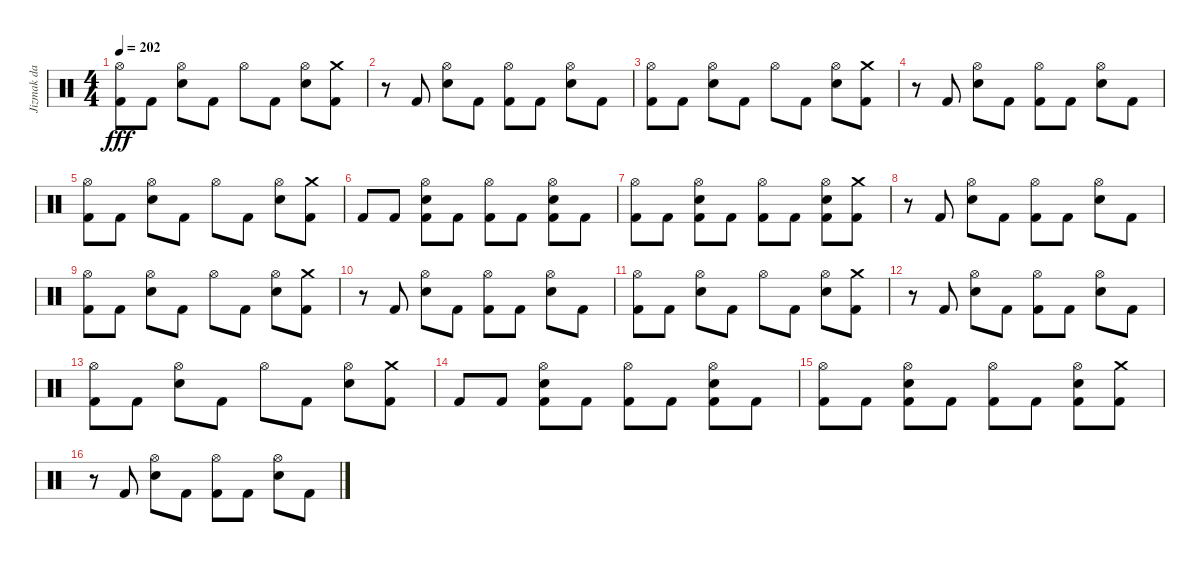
\track ("Jizmak da Gusha" "Jizmak da ") {instrument percussion}
\staff {score}
\articulation defaults
\ts (4 4)
\tempo 202
\clef neutral
\ks c
("Hi-Hat (open)" "Kick (hit) 2").8{dy fff} "Kick (hit) 2".8 ("Hi-Hat (open)" "Electric Snare (hit)").8 "Kick (hit) 2".8 "Hi-Hat (open)".8 "Kick (hit) 2".8 ("Hi-Hat (open)" "Electric Snare (hit)").8 ("Crash medium (hit)" "Kick (hit) 2").8 |
r.8 "Kick (hit) 2".8 ("Hi-Hat (open)" "Electric Snare (hit)").8 "Kick (hit) 2".8 ("Hi-Hat (open)" "Kick (hit) 2").8 "Kick (hit) 2".8 ("Hi-Hat (open)" "Electric Snare (hit)").8 "Kick (hit) 2".8 |
("Hi-Hat (open)" "Kick (hit) 2").8 "Kick (hit) 2".8 ("Hi-Hat (open)" "Electric Snare (hit)").8 "Kick (hit) 2".8 "Hi-Hat (open)".8 "Kick (hit) 2".8 ("Hi-Hat (open)" "Electric Snare (hit)").8 ("Crash medium (hit)" "Kick (hit) 2").8 |
r.8 "Kick (hit) 2".8 ("Hi-Hat (open)" "Electric Snare (hit)").8 "Kick (hit) 2".8 ("Hi-Hat (open)" "Kick (hit) 2").8 "Kick (hit) 2".8 ("Hi-Hat (open)" "Electric Snare (hit)").8 "Kick (hit) 2".8 |
("Hi-Hat (open)" "Kick (hit) 2").8 "Kick (hit) 2".8 ("Hi-Hat (open)" "Electric Snare (hit)").8 "Kick (hit) 2".8 "Hi-Hat (open)".8 "Kick (hit) 2".8 ("Hi-Hat (open)" "Electric Snare (hit)").8 ("Crash medium (hit)" "Kick (hit) 2").8 |
"Kick (hit) 2".8 "Kick (hit) 2".8 ("Hi-Hat (open)" "Electric Snare (hit)" "Kick (hit) 2").8 "Kick (hit) 2".8 ("Hi-Hat (open)" "Kick (hit) 2").8 "Kick (hit) 2".8 ("Hi-Hat (open)" "Electric Snare (hit)" "Kick (hit) 2").8 "Kick (hit) 2".8 |
("Hi-Hat (open)" "Kick (hit) 2").8 "Kick (hit) 2".8 ("Hi-Hat (open)" "Electric Snare (hit)" "Kick (hit) 2").8 "Kick (hit) 2".8 ("Hi-Hat (open)" "Kick (hit) 2").8 "Kick (hit) 2".8 ("Hi-Hat (open)" "Electric Snare (hit)" "Kick (hit) 2").8 ("Crash medium (hit)" "Kick (hit) 2").8 |
r.8 "Kick (hit) 2".8 ("Hi-Hat (open)" "Electric Snare (hit)").8 "Kick (hit) 2".8 ("Hi-Hat (open)" "Kick (hit) 2").8 "Kick (hit) 2".8 ("Hi-Hat (open)" "Electric Snare (hit)").8 "Kick (hit) 2".8 |
("Hi-Hat (open)" "Kick (hit) 2").8 "Kick (hit) 2".8 ("Hi-Hat (open)" "Electric Snare (hit)").8 "Kick (hit) 2".8 "Hi-Hat (open)".8 "Kick (hit) 2".8 ("Hi-Hat (open)" "Electric Snare (hit)").8 ("Crash medium (hit)" "Kick (hit) 2").8 |
r.8 "Kick (hit) 2".8 ("Hi-Hat (open)" "Electric Snare (hit)").8 "Kick (hit) 2".8 ("Hi-Hat (open)" "Kick (hit) 2").8 "Kick (hit) 2".8 ("Hi-Hat (open)" "Electric Snare (hit)").8 "Kick (hit) 2".8 |
("Hi-Hat (open)" "Kick (hit) 2").8 "Kick (hit) 2".8 ("Hi-Hat (open)" "Electric Snare (hit)").8 "Kick (hit) 2".8 "Hi-Hat (open)".8 "Kick (hit) 2".8 ("Hi-Hat (open)" "Electric Snare (hit)").8 ("Crash medium (hit)" "Kick (hit) 2").8 |
r.8 "Kick (hit) 2".8 ("Hi-Hat (open)" "Electric Snare (hit)").8 "Kick (hit) 2".8 ("Hi-Hat (open)" "Kick (hit) 2").8 "Kick (hit) 2".8 ("Hi-Hat (open)" "Electric Snare (hit)").8 "Kick (hit) 2".8 |
("Hi-Hat (open)" "Kick (hit) 2").8 "Kick (hit) 2".8 ("Hi-Hat (open)" "Electric Snare (hit)").8 "Kick (hit) 2".8 "Hi-Hat (open)".8 "Kick (hit) 2".8 ("Hi-Hat (open)" "Electric Snare (hit)").8 ("Crash medium (hit)" "Kick (hit) 2").8 |
"Kick (hit) 2".8 "Kick (hit) 2".8 ("Hi-Hat (open)" "Electric Snare (hit)" "Kick (hit) 2").8 "Kick (hit) 2".8 ("Hi-Hat (open)" "Kick (hit) 2").8 "Kick (hit) 2".8 ("Hi-Hat (open)" "Electric Snare (hit)" "Kick (hit) 2").8 "Kick (hit) 2".8 |
("Hi-Hat (open)" "Kick (hit) 2").8 "Kick (hit) 2".8 ("Hi-Hat (open)" "Electric Snare (hit)" "Kick (hit) 2").8 "Kick (hit) 2".8 ("Hi-Hat (open)" "Kick (hit) 2").8 "Kick (hit) 2".8 ("Hi-Hat (open)" "Electric Snare (hit)" "Kick (hit) 2").8 ("Crash medium (hit)" "Kick (hit) 2").8 |
r.8 "Kick (hit) 2".8 ("Hi-Hat (open)" "Electric Snare (hit)").8 "Kick (hit) 2".8 ("Hi-Hat (open)" "Kick (hit) 2").8 "Kick (hit) 2".8 ("Hi-Hat (open)" "Electric Snare (hit)").8 "Kick (hit) 2".8
